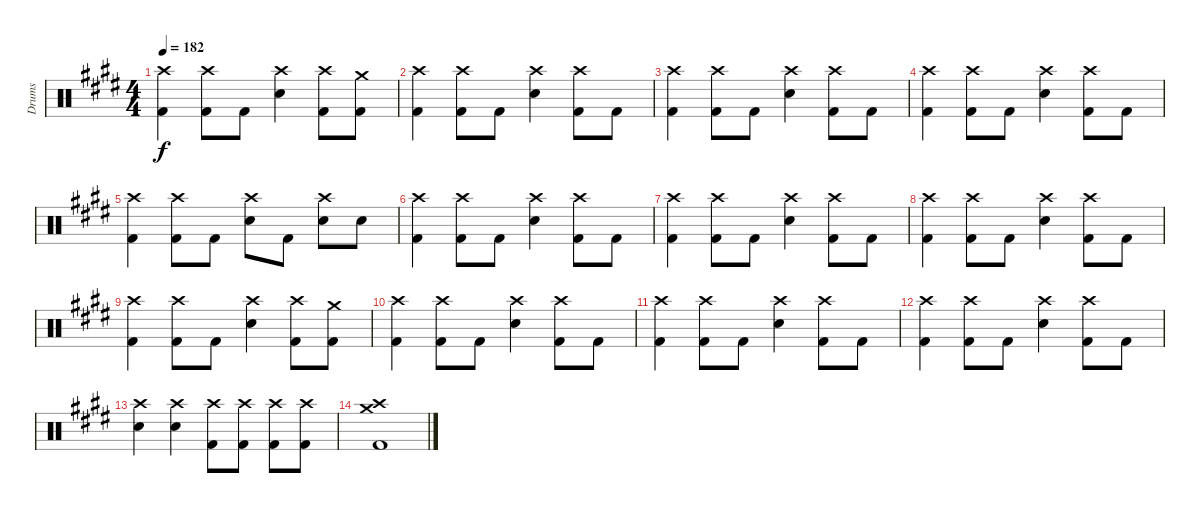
\track ("Drums" "Drums") {instrument percussion}
\staff {score}
\articulation defaults
\ts (4 4)
\tempo 182
\clef neutral
\ks c#minor
("Crash high (hit)" "Kick (hit) 2").4{dy f} ("Crash high (hit)" "Kick (hit) 2").8 "Kick (hit) 2".8 ("Crash high (hit)" "Snare (hit) 2").4 ("Crash high (hit)" "Kick (hit) 2").8 ("Crash medium (hit)" "Kick (hit) 2").8 |
("Crash high (hit)" "Kick (hit) 2").4 ("Crash high (hit)" "Kick (hit) 2").8 "Kick (hit) 2".8 ("Crash high (hit)" "Snare (hit) 2").4 ("Crash high (hit)" "Kick (hit) 2").8 "Kick (hit) 2".8 |
("Crash high (hit)" "Kick (hit) 2").4 ("Crash high (hit)" "Kick (hit) 2").8 "Kick (hit) 2".8 ("Crash high (hit)" "Snare (hit) 2").4 ("Crash high (hit)" "Kick (hit) 2").8 "Kick (hit) 2".8 |
("Crash high (hit)" "Kick (hit) 2").4 ("Crash high (hit)" "Kick (hit) 2").8 "Kick (hit) 2".8 ("Crash high (hit)" "Snare (hit) 2").4 ("Crash high (hit)" "Kick (hit) 2").8 "Kick (hit) 2".8 |
("Crash high (hit)" "Kick (hit) 2").4 ("Crash high (hit)" "Kick (hit) 2").8 "Kick (hit) 2".8 ("Crash high (hit)" "Snare (hit) 2").8 "Kick (hit) 2".8 ("Crash high (hit)" "Snare (hit) 2").8 "Snare (hit) 2".8 |
("Crash high (hit)" "Kick (hit) 2").4 ("Crash high (hit)" "Kick (hit) 2").8 "Kick (hit) 2".8 ("Crash high (hit)" "Snare (hit) 2").4 ("Crash high (hit)" "Kick (hit) 2").8 "Kick (hit) 2".8 |
("Crash high (hit)" "Kick (hit) 2").4 ("Crash high (hit)" "Kick (hit) 2").8 "Kick (hit) 2".8 ("Crash high (hit)" "Snare (hit) 2").4 ("Crash high (hit)" "Kick (hit) 2").8 "Kick (hit) 2".8 |
("Crash high (hit)" "Kick (hit) 2").4 ("Crash high (hit)" "Kick (hit) 2").8 "Kick (hit) 2".8 ("Crash high (hit)" "Snare (hit) 2").4 ("Crash high (hit)" "Kick (hit) 2").8 "Kick (hit) 2".8 |
("Crash high (hit)" "Kick (hit) 2").4 ("Crash high (hit)" "Kick (hit) 2").8 "Kick (hit) 2".8 ("Crash high (hit)" "Snare (hit) 2").4 ("Crash high (hit)" "Kick (hit) 2").8 ("Crash medium (hit)" "Kick (hit) 2").8 |
("Crash high (hit)" "Kick (hit) 2").4 ("Crash high (hit)" "Kick (hit) 2").8 "Kick (hit) 2".8 ("Crash high (hit)" "Snare (hit) 2").4 ("Crash high (hit)" "Kick (hit) 2").8 "Kick (hit) 2".8 |
("Crash high (hit)" "Kick (hit) 2").4 ("Crash high (hit)" "Kick (hit) 2").8 "Kick (hit) 2".8 ("Crash high (hit)" "Snare (hit) 2").4 ("Crash high (hit)" "Kick (hit) 2").8 "Kick (hit) 2".8 |
("Crash high (hit)" "Kick (hit) 2").4 ("Crash high (hit)" "Kick (hit) 2").8 "Kick (hit) 2".8 ("Crash high (hit)" "Snare (hit) 2").4 ("Crash high (hit)" "Kick (hit) 2").8 "Kick (hit) 2".8 |
("Crash high (hit)" "Snare (hit) 2").4 ("Crash high (hit)" "Snare (hit) 2").4 ("Crash high (hit)" "Kick (hit) 2").8 ("Crash high (hit)" "Kick (hit) 2").8 ("Crash high (hit)" "Kick (hit) 2").8 ("Crash high (hit)" "Kick (hit) 2").8 |
("Crash high (hit)" "Crash medium (hit)" "Kick (hit) 2").1
